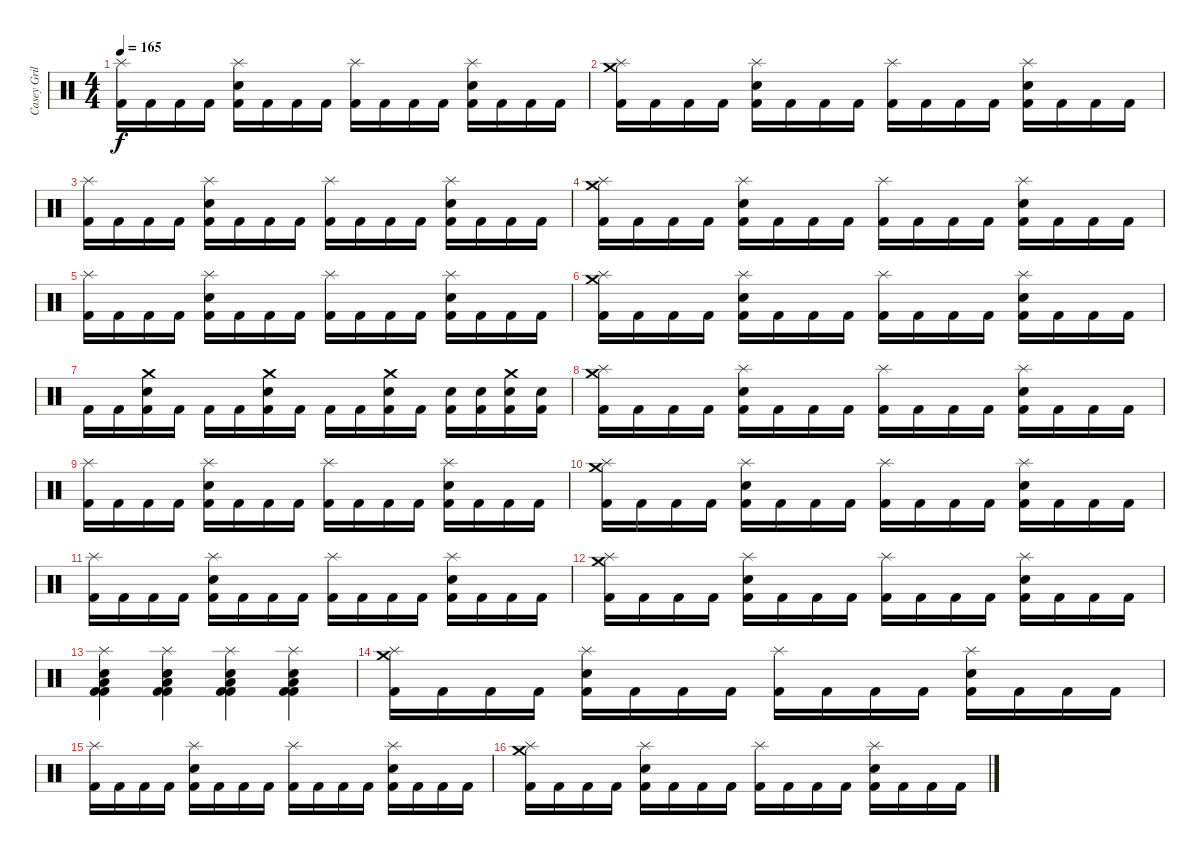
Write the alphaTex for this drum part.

\track ("Casey Grillo" "Casey Gril") {instrument percussion}
\staff {score}
\articulation defaults
\ts (4 4)
\tempo 165
\clef neutral
\ks c
("Splash (hit)" "Kick (hit) 2").16{dy f} "Kick (hit) 2".16 "Kick (hit) 2".16 "Kick (hit) 2".16 ("Electric Snare (hit)" "Splash (hit)" "Kick (hit) 2").16 "Kick (hit) 2".16 "Kick (hit) 2".16 "Kick (hit) 2".16 ("Splash (hit)" "Kick (hit) 2").16 "Kick (hit) 2".16 "Kick (hit) 2".16 "Kick (hit) 2".16 ("Electric Snare (hit)" "Splash (hit)" "Kick (hit) 2").16 "Kick (hit) 2".16 "Kick (hit) 2".16 "Kick (hit) 2".16 |
("Splash (hit)" "Crash medium (hit)" "Kick (hit) 2").16 "Kick (hit) 2".16 "Kick (hit) 2".16 "Kick (hit) 2".16 ("Electric Snare (hit)" "Splash (hit)" "Kick (hit) 2").16 "Kick (hit) 2".16 "Kick (hit) 2".16 "Kick (hit) 2".16 ("Splash (hit)" "Kick (hit) 2").16 "Kick (hit) 2".16 "Kick (hit) 2".16 "Kick (hit) 2".16 ("Electric Snare (hit)" "Splash (hit)" "Kick (hit) 2").16 "Kick (hit) 2".16 "Kick (hit) 2".16 "Kick (hit) 2".16 |
("Splash (hit)" "Kick (hit) 2").16 "Kick (hit) 2".16 "Kick (hit) 2".16 "Kick (hit) 2".16 ("Electric Snare (hit)" "Splash (hit)" "Kick (hit) 2").16 "Kick (hit) 2".16 "Kick (hit) 2".16 "Kick (hit) 2".16 ("Splash (hit)" "Kick (hit) 2").16 "Kick (hit) 2".16 "Kick (hit) 2".16 "Kick (hit) 2".16 ("Electric Snare (hit)" "Splash (hit)" "Kick (hit) 2").16 "Kick (hit) 2".16 "Kick (hit) 2".16 "Kick (hit) 2".16 |
("Splash (hit)" "Crash medium (hit)" "Kick (hit) 2").16 "Kick (hit) 2".16 "Kick (hit) 2".16 "Kick (hit) 2".16 ("Electric Snare (hit)" "Splash (hit)" "Kick (hit) 2").16 "Kick (hit) 2".16 "Kick (hit) 2".16 "Kick (hit) 2".16 ("Splash (hit)" "Kick (hit) 2").16 "Kick (hit) 2".16 "Kick (hit) 2".16 "Kick (hit) 2".16 ("Electric Snare (hit)" "Splash (hit)" "Kick (hit) 2").16 "Kick (hit) 2".16 "Kick (hit) 2".16 "Kick (hit) 2".16 |
("Splash (hit)" "Kick (hit) 2").16 "Kick (hit) 2".16 "Kick (hit) 2".16 "Kick (hit) 2".16 ("Electric Snare (hit)" "Splash (hit)" "Kick (hit) 2").16 "Kick (hit) 2".16 "Kick (hit) 2".16 "Kick (hit) 2".16 ("Splash (hit)" "Kick (hit) 2").16 "Kick (hit) 2".16 "Kick (hit) 2".16 "Kick (hit) 2".16 ("Electric Snare (hit)" "Splash (hit)" "Kick (hit) 2").16 "Kick (hit) 2".16 "Kick (hit) 2".16 "Kick (hit) 2".16 |
("Splash (hit)" "Crash medium (hit)" "Kick (hit) 2").16 "Kick (hit) 2".16 "Kick (hit) 2".16 "Kick (hit) 2".16 ("Electric Snare (hit)" "Splash (hit)" "Kick (hit) 2").16 "Kick (hit) 2".16 "Kick (hit) 2".16 "Kick (hit) 2".16 ("Splash (hit)" "Kick (hit) 2").16 "Kick (hit) 2".16 "Kick (hit) 2".16 "Kick (hit) 2".16 ("Electric Snare (hit)" "Splash (hit)" "Kick (hit) 2").16 "Kick (hit) 2".16 "Kick (hit) 2".16 "Kick (hit) 2".16 |
"Kick (hit) 2".16 "Kick (hit) 2".16 ("Electric Snare (hit)" "Crash medium (hit)" "Kick (hit) 2").16 "Kick (hit) 2".16 "Kick (hit) 2".16 "Kick (hit) 2".16 ("Electric Snare (hit)" "Crash medium (hit)" "Kick (hit) 2").16 "Kick (hit) 2".16 "Kick (hit) 2".16 "Kick (hit) 2".16 ("Electric Snare (hit)" "Crash medium (hit)" "Kick (hit) 2").16 "Kick (hit) 2".16 ("Electric Snare (hit)" "Kick (hit) 2").16 ("Electric Snare (hit)" "Kick (hit) 2").16 ("Electric Snare (hit)" "Crash medium (hit)" "Kick (hit) 2").16 ("Electric Snare (hit)" "Kick (hit) 2").16 |
("Splash (hit)" "Crash medium (hit)" "Kick (hit) 2").16 "Kick (hit) 2".16 "Kick (hit) 2".16 "Kick (hit) 2".16 ("Electric Snare (hit)" "Splash (hit)" "Kick (hit) 2").16 "Kick (hit) 2".16 "Kick (hit) 2".16 "Kick (hit) 2".16 ("Splash (hit)" "Kick (hit) 2").16 "Kick (hit) 2".16 "Kick (hit) 2".16 "Kick (hit) 2".16 ("Electric Snare (hit)" "Splash (hit)" "Kick (hit) 2").16 "Kick (hit) 2".16 "Kick (hit) 2".16 "Kick (hit) 2".16 |
("Splash (hit)" "Kick (hit) 2").16 "Kick (hit) 2".16 "Kick (hit) 2".16 "Kick (hit) 2".16 ("Electric Snare (hit)" "Splash (hit)" "Kick (hit) 2").16 "Kick (hit) 2".16 "Kick (hit) 2".16 "Kick (hit) 2".16 ("Splash (hit)" "Kick (hit) 2").16 "Kick (hit) 2".16 "Kick (hit) 2".16 "Kick (hit) 2".16 ("Electric Snare (hit)" "Splash (hit)" "Kick (hit) 2").16 "Kick (hit) 2".16 "Kick (hit) 2".16 "Kick (hit) 2".16 |
("Splash (hit)" "Crash medium (hit)" "Kick (hit) 2").16 "Kick (hit) 2".16 "Kick (hit) 2".16 "Kick (hit) 2".16 ("Electric Snare (hit)" "Splash (hit)" "Kick (hit) 2").16 "Kick (hit) 2".16 "Kick (hit) 2".16 "Kick (hit) 2".16 ("Splash (hit)" "Kick (hit) 2").16 "Kick (hit) 2".16 "Kick (hit) 2".16 "Kick (hit) 2".16 ("Electric Snare (hit)" "Splash (hit)" "Kick (hit) 2").16 "Kick (hit) 2".16 "Kick (hit) 2".16 "Kick (hit) 2".16 |
("Splash (hit)" "Kick (hit) 2").16 "Kick (hit) 2".16 "Kick (hit) 2".16 "Kick (hit) 2".16 ("Electric Snare (hit)" "Splash (hit)" "Kick (hit) 2").16 "Kick (hit) 2".16 "Kick (hit) 2".16 "Kick (hit) 2".16 ("Splash (hit)" "Kick (hit) 2").16 "Kick (hit) 2".16 "Kick (hit) 2".16 "Kick (hit) 2".16 ("Electric Snare (hit)" "Splash (hit)" "Kick (hit) 2").16 "Kick (hit) 2".16 "Kick (hit) 2".16 "Kick (hit) 2".16 |
("Splash (hit)" "Crash medium (hit)" "Kick (hit) 2").16 "Kick (hit) 2".16 "Kick (hit) 2".16 "Kick (hit) 2".16 ("Electric Snare (hit)" "Splash (hit)" "Kick (hit) 2").16 "Kick (hit) 2".16 "Kick (hit) 2".16 "Kick (hit) 2".16 ("Splash (hit)" "Kick (hit) 2").16 "Kick (hit) 2".16 "Kick (hit) 2".16 "Kick (hit) 2".16 ("Electric Snare (hit)" "Splash (hit)" "Kick (hit) 2").16 "Kick (hit) 2".16 "Kick (hit) 2".16 "Kick (hit) 2".16 |
("Snare (hit) 2" "Splash (hit)" "Low Tom (hit)" "Kick (hit) 2" "Kick (hit) 2").4 ("Snare (hit) 2" "Splash (hit)" "Low Tom (hit)" "Kick (hit) 2" "Kick (hit) 2").4 ("Snare (hit) 2" "Splash (hit)" "Low Tom (hit)" "Kick (hit) 2" "Kick (hit) 2").4 ("Snare (hit) 2" "Splash (hit)" "Low Tom (hit)" "Kick (hit) 2" "Kick (hit) 2").4 |
("Splash (hit)" "Crash medium (hit)" "Kick (hit) 2").16 "Kick (hit) 2".16 "Kick (hit) 2".16 "Kick (hit) 2".16 ("Electric Snare (hit)" "Splash (hit)" "Kick (hit) 2").16 "Kick (hit) 2".16 "Kick (hit) 2".16 "Kick (hit) 2".16 ("Splash (hit)" "Kick (hit) 2").16 "Kick (hit) 2".16 "Kick (hit) 2".16 "Kick (hit) 2".16 ("Electric Snare (hit)" "Splash (hit)" "Kick (hit) 2").16 "Kick (hit) 2".16 "Kick (hit) 2".16 "Kick (hit) 2".16 |
("Splash (hit)" "Kick (hit) 2").16 "Kick (hit) 2".16 "Kick (hit) 2".16 "Kick (hit) 2".16 ("Electric Snare (hit)" "Splash (hit)" "Kick (hit) 2").16 "Kick (hit) 2".16 "Kick (hit) 2".16 "Kick (hit) 2".16 ("Splash (hit)" "Kick (hit) 2").16 "Kick (hit) 2".16 "Kick (hit) 2".16 "Kick (hit) 2".16 ("Electric Snare (hit)" "Splash (hit)" "Kick (hit) 2").16 "Kick (hit) 2".16 "Kick (hit) 2".16 "Kick (hit) 2".16 |
("Splash (hit)" "Crash medium (hit)" "Kick (hit) 2").16 "Kick (hit) 2".16 "Kick (hit) 2".16 "Kick (hit) 2".16 ("Electric Snare (hit)" "Splash (hit)" "Kick (hit) 2").16 "Kick (hit) 2".16 "Kick (hit) 2".16 "Kick (hit) 2".16 ("Splash (hit)" "Kick (hit) 2").16 "Kick (hit) 2".16 "Kick (hit) 2".16 "Kick (hit) 2".16 ("Electric Snare (hit)" "Splash (hit)" "Kick (hit) 2").16 "Kick (hit) 2".16 "Kick (hit) 2".16 "Kick (hit) 2".16
